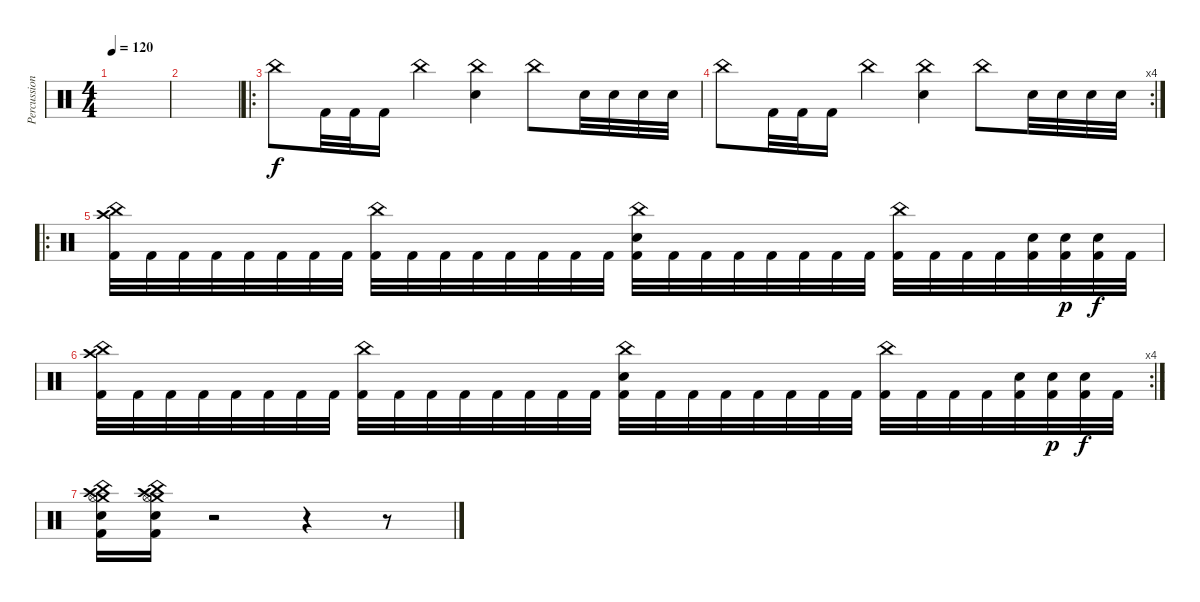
\track ("Percussions" "Percussion") {instrument percussion}
\staff {score}
\articulation defaults
\ts (4 4)
\tempo 120
\clef neutral
\ks c
|
|
\ro "China (hit)".8 "Kick (hit) 2".32 "Kick (hit) 2".32 "Kick (hit) 2".16 "China (hit)".4
("China (hit)" "Snare (hit) 2").4 "China (hit)".8 "Snare (hit) 2".32 "Snare (hit) 2".32 "Snare (hit) 2".32 "Snare (hit) 2".32 |
\rc 4 "China (hit)".8 "Kick (hit) 2".32 "Kick (hit) 2".32 "Kick (hit) 2".16 "China (hit)".4
("China (hit)" "Snare (hit) 2").4 "China (hit)".8 "Snare (hit) 2".32 "Snare (hit) 2".32 "Snare (hit) 2".32 "Snare (hit) 2".32 |
\ro
("Crash high (hit)" "China (hit)" "Kick (hit) 2").32 "Kick (hit) 2".32 "Kick (hit) 2".32 "Kick (hit) 2".32 "Kick (hit) 2".32 "Kick (hit) 2".32 "Kick (hit) 2".32 "Kick (hit) 2".32 ("China (hit)" "Kick (hit) 2").32 "Kick (hit) 2".32 "Kick (hit) 2".32 "Kick (hit) 2".32 "Kick (hit) 2".32 "Kick (hit) 2".32 "Kick (hit) 2".32 "Kick (hit) 2".32 ("China (hit)" "Snare (hit) 2" "Kick (hit) 2").32 "Kick (hit) 2".32 "Kick (hit) 2".32 "Kick (hit) 2".32 "Kick (hit) 2".32 "Kick (hit) 2".32 "Kick (hit) 2".32 "Kick (hit) 2".32 ("China (hit)" "Kick (hit) 2").32 "Kick (hit) 2".32 "Kick (hit) 2".32 "Kick (hit) 2".32 ("Snare (hit) 2" "Kick (hit) 2").32 ("Snare (hit) 2" "Kick (hit) 2").32{dy p} ("Snare (hit) 2" "Kick (hit) 2").32{dy f} "Kick (hit) 2".32 |
\rc 4
("Crash high (hit)" "China (hit)" "Kick (hit) 2").32 "Kick (hit) 2".32 "Kick (hit) 2".32 "Kick (hit) 2".32 "Kick (hit) 2".32 "Kick (hit) 2".32 "Kick (hit) 2".32 "Kick (hit) 2".32 ("China (hit)" "Kick (hit) 2").32 "Kick (hit) 2".32 "Kick (hit) 2".32 "Kick (hit) 2".32 "Kick (hit) 2".32 "Kick (hit) 2".32 "Kick (hit) 2".32 "Kick (hit) 2".32 ("China (hit)" "Snare (hit) 2" "Kick (hit) 2").32 "Kick (hit) 2".32 "Kick (hit) 2".32 "Kick (hit) 2".32 "Kick (hit) 2".32 "Kick (hit) 2".32 "Kick (hit) 2".32 "Kick (hit) 2".32 ("China (hit)" "Kick (hit) 2").32 "Kick (hit) 2".32 "Kick (hit) 2".32 "Kick (hit) 2".32 ("Snare (hit) 2" "Kick (hit) 2").32 ("Snare (hit) 2" "Kick (hit) 2").32{dy p} ("Snare (hit) 2" "Kick (hit) 2").32{dy f} "Kick (hit) 2".32 |
("Crash high (hit)" "Crash medium (hit)" "Hi-Hat (open)" "China (hit)" "Electric Snare (hit)" "Kick (hit) 2").16 ("Crash high (hit)" "Crash medium (hit)" "Hi-Hat (open)" "China (hit)" "Electric Snare (hit)" "Kick (hit) 2").16 r.2 r.4 r.8
